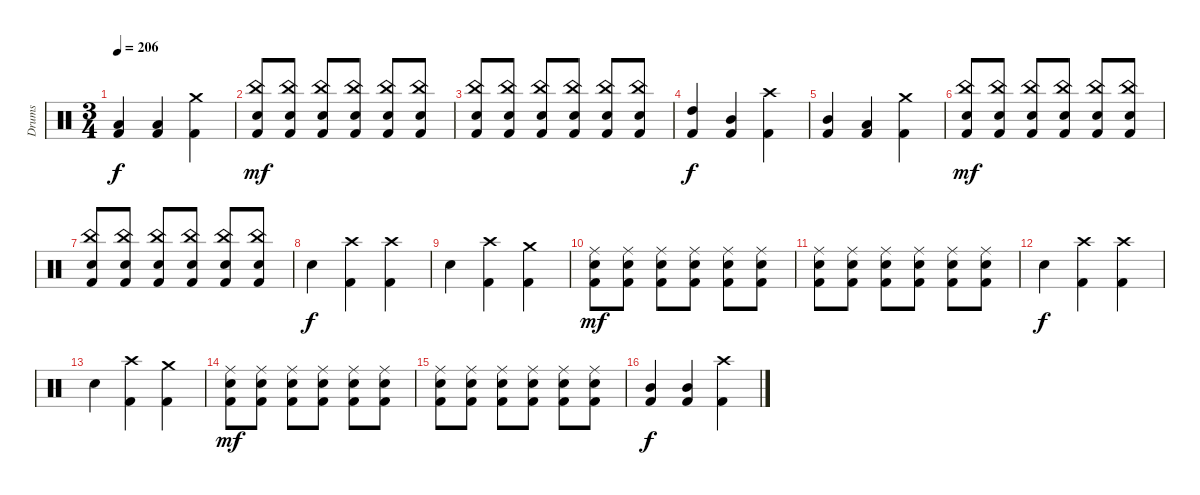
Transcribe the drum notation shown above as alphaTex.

\track ("Drums" "Drums") {instrument percussion}
\staff {score}
\articulation defaults
\ts (3 4)
\tempo 206
\clef neutral
\ks c
("Low Tom (hit)" "Kick (hit) 2").4{dy f} ("Low Tom (hit)" "Kick (hit) 2").4 ("Crash medium (hit)" "Kick (hit) 2").4 |
("China (hit)" "Electric Snare (hit)" "Kick (hit) 2").8{dy mf} ("China (hit)" "Electric Snare (hit)" "Kick (hit) 2").8 ("China (hit)" "Electric Snare (hit)" "Kick (hit) 2").8 ("China (hit)" "Electric Snare (hit)" "Kick (hit) 2").8 ("China (hit)" "Electric Snare (hit)" "Kick (hit) 2").8 ("China (hit)" "Electric Snare (hit)" "Kick (hit) 2").8 |
("China (hit)" "Electric Snare (hit)" "Kick (hit) 2").8 ("China (hit)" "Electric Snare (hit)" "Kick (hit) 2").8 ("China (hit)" "Electric Snare (hit)" "Kick (hit) 2").8 ("China (hit)" "Electric Snare (hit)" "Kick (hit) 2").8 ("China (hit)" "Electric Snare (hit)" "Kick (hit) 2").8 ("China (hit)" "Electric Snare (hit)" "Kick (hit) 2").8 |
("High Tom (hit)" "Kick (hit) 2").4{dy f} ("Mid Tom (hit)" "Kick (hit) 2").4 ("Crash high (hit)" "Kick (hit) 2").4 |
("Mid Tom (hit)" "Kick (hit) 2").4 ("Low Tom (hit)" "Kick (hit) 2").4 ("Crash medium (hit)" "Kick (hit) 2").4 |
("China (hit)" "Electric Snare (hit)" "Kick (hit) 2").8{dy mf} ("China (hit)" "Electric Snare (hit)" "Kick (hit) 2").8 ("China (hit)" "Electric Snare (hit)" "Kick (hit) 2").8 ("China (hit)" "Electric Snare (hit)" "Kick (hit) 2").8 ("China (hit)" "Electric Snare (hit)" "Kick (hit) 2").8 ("China (hit)" "Electric Snare (hit)" "Kick (hit) 2").8 |
("China (hit)" "Electric Snare (hit)" "Kick (hit) 2").8 ("China (hit)" "Electric Snare (hit)" "Kick (hit) 2").8 ("China (hit)" "Electric Snare (hit)" "Kick (hit) 2").8 ("China (hit)" "Electric Snare (hit)" "Kick (hit) 2").8 ("China (hit)" "Electric Snare (hit)" "Kick (hit) 2").8 ("China (hit)" "Electric Snare (hit)" "Kick (hit) 2").8 |
"Electric Snare (hit)".4{dy f} ("Crash high (hit)" "Kick (hit) 2").4 ("Crash high (hit)" "Kick (hit) 2").4 |
"Electric Snare (hit)".4 ("Crash high (hit)" "Kick (hit) 2").4 ("Crash medium (hit)" "Kick (hit) 2").4 |
("Ride (middle)" "Electric Snare (hit)" "Kick (hit) 2").8{dy mf} ("Ride (middle)" "Electric Snare (hit)" "Kick (hit) 2").8 ("Ride (middle)" "Electric Snare (hit)" "Kick (hit) 2").8 ("Ride (middle)" "Electric Snare (hit)" "Kick (hit) 2").8 ("Ride (middle)" "Electric Snare (hit)" "Kick (hit) 2").8 ("Ride (middle)" "Electric Snare (hit)" "Kick (hit) 2").8 |
("Ride (middle)" "Electric Snare (hit)" "Kick (hit) 2").8 ("Ride (middle)" "Electric Snare (hit)" "Kick (hit) 2").8 ("Ride (middle)" "Electric Snare (hit)" "Kick (hit) 2").8 ("Ride (middle)" "Electric Snare (hit)" "Kick (hit) 2").8 ("Ride (middle)" "Electric Snare (hit)" "Kick (hit) 2").8 ("Ride (middle)" "Electric Snare (hit)" "Kick (hit) 2").8 |
"Electric Snare (hit)".4{dy f} ("Crash high (hit)" "Kick (hit) 2").4 ("Crash high (hit)" "Kick (hit) 2").4 |
"Electric Snare (hit)".4 ("Crash high (hit)" "Kick (hit) 2").4 ("Crash medium (hit)" "Kick (hit) 2").4 |
("Ride (middle)" "Electric Snare (hit)" "Kick (hit) 2").8{dy mf} ("Ride (middle)" "Electric Snare (hit)" "Kick (hit) 2").8 ("Ride (middle)" "Electric Snare (hit)" "Kick (hit) 2").8 ("Ride (middle)" "Electric Snare (hit)" "Kick (hit) 2").8 ("Ride (middle)" "Electric Snare (hit)" "Kick (hit) 2").8 ("Ride (middle)" "Electric Snare (hit)" "Kick (hit) 2").8 |
("Ride (middle)" "Electric Snare (hit)" "Kick (hit) 2").8 ("Ride (middle)" "Electric Snare (hit)" "Kick (hit) 2").8 ("Ride (middle)" "Electric Snare (hit)" "Kick (hit) 2").8 ("Ride (middle)" "Electric Snare (hit)" "Kick (hit) 2").8 ("Ride (middle)" "Electric Snare (hit)" "Kick (hit) 2").8 ("Ride (middle)" "Electric Snare (hit)" "Kick (hit) 2").8 |
("Mid Tom (hit)" "Kick (hit) 2").4{dy f} ("Mid Tom (hit)" "Kick (hit) 2").4 ("Crash high (hit)" "Kick (hit) 2").4
